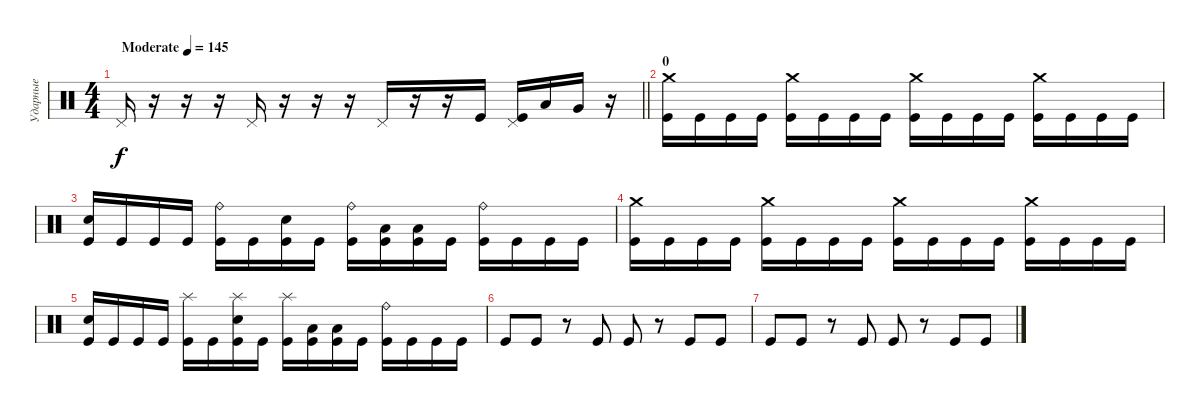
\track ("Ударные" "Ударные") {instrument percussion}
\staff {score}
\articulation defaults
\ts (4 4)
\tempo (145 "Moderate")
\clef neutral
\barLineRight lightlight
\ks c "Pedal Hi-Hat (hit)".16{dy f}
r.16 r.16 r.16 "Pedal Hi-Hat (hit)".16 r.16 r.16 r.16 "Pedal Hi-Hat (hit)".16 r.16 r.16 "Kick (hit)".16 ("Pedal Hi-Hat (hit)" "Kick (hit)").16 "Low Tom (hit)".16 "Very Low Tom (hit)".16 r.16 |
\section ("" "0")
("Crash medium (hit)" "Kick (hit)").16 "Kick (hit)".16 "Kick (hit)".16 "Kick (hit)".16 ("Crash medium (hit)" "Kick (hit)").16 "Kick (hit)".16 "Kick (hit)".16 "Kick (hit)".16 ("Crash medium (hit)" "Kick (hit)").16 "Kick (hit)".16 "Kick (hit)".16 "Kick (hit)".16 ("Crash medium (hit)" "Kick (hit)").16 "Kick (hit)".16 "Kick (hit)".16 "Kick (hit)".16 |
("Electric Snare (hit)" "Kick (hit)").16 "Kick (hit)".16 "Kick (hit)".16 "Kick (hit)".16 ("Ride (bell)" "Kick (hit)").16 "Kick (hit)".16 ("Electric Snare (hit)" "Kick (hit)").16 "Kick (hit)".16 ("Ride (bell)" "Kick (hit)").16 ("Low Tom (hit)" "Kick (hit)").16 ("Low Tom (hit)" "Kick (hit)").16 "Kick (hit)".16 ("Ride (bell)" "Kick (hit)").16 "Kick (hit)".16 "Kick (hit)".16 "Kick (hit)".16 |
("Crash medium (hit)" "Kick (hit)").16 "Kick (hit)".16 "Kick (hit)".16 "Kick (hit)".16 ("Crash medium (hit)" "Kick (hit)").16 "Kick (hit)".16 "Kick (hit)".16 "Kick (hit)".16 ("Crash medium (hit)" "Kick (hit)").16 "Kick (hit)".16 "Kick (hit)".16 "Kick (hit)".16 ("Crash medium (hit)" "Kick (hit)").16 "Kick (hit)".16 "Kick (hit)".16 "Kick (hit)".16 |
("Electric Snare (hit)" "Kick (hit)").16 "Kick (hit)".16 "Kick (hit)".16 "Kick (hit)".16 ("Splash (hit)" "Kick (hit)").16 "Kick (hit)".16 ("Splash (hit)" "Electric Snare (hit)" "Kick (hit)").16 "Kick (hit)".16 ("Splash (hit)" "Kick (hit)").16 ("Low Tom (hit)" "Kick (hit)").16 ("Low Tom (hit)" "Kick (hit)").16 "Kick (hit)".16 ("Ride (bell)" "Kick (hit)").16 "Kick (hit)".16 "Kick (hit)".16 "Kick (hit)".16 |
"Kick (hit)".8 "Kick (hit)".8 r.8 "Kick (hit)".8 "Kick (hit)".8 r.8 "Kick (hit)".8 "Kick (hit)".8 |
"Kick (hit)".8 "Kick (hit)".8 r.8 "Kick (hit)".8 "Kick (hit)".8 r.8 "Kick (hit)".8 "Kick (hit)".8
